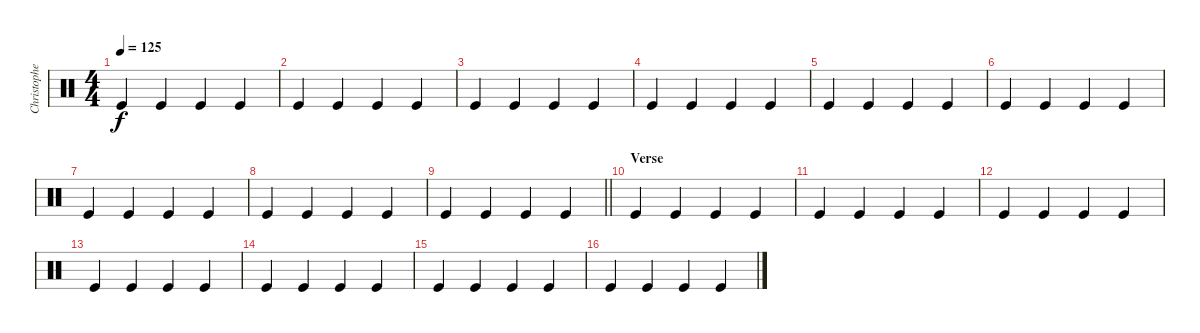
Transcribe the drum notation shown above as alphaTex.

\track ("Christopher - Drums" "Christophe") {instrument percussion}
\staff {score}
\articulation defaults
\ts (4 4)
\tempo 125
\clef neutral
\ks c "Kick (hit)".4{dy f} "Kick (hit)".4 "Kick (hit)".4 "Kick (hit)".4
|
"Kick (hit)".4 "Kick (hit)".4 "Kick (hit)".4 "Kick (hit)".4 |
"Kick (hit)".4 "Kick (hit)".4 "Kick (hit)".4 "Kick (hit)".4 |
"Kick (hit)".4 "Kick (hit)".4 "Kick (hit)".4 "Kick (hit)".4 |
"Kick (hit)".4 "Kick (hit)".4 "Kick (hit)".4 "Kick (hit)".4 |
"Kick (hit)".4 "Kick (hit)".4 "Kick (hit)".4 "Kick (hit)".4 |
"Kick (hit)".4 "Kick (hit)".4 "Kick (hit)".4 "Kick (hit)".4 |
"Kick (hit)".4 "Kick (hit)".4 "Kick (hit)".4 "Kick (hit)".4 |
\barLineRight lightlight "Kick (hit)".4 "Kick (hit)".4 "Kick (hit)".4 "Kick (hit)".4
|
\section ("" "Verse")
"Kick (hit)".4 "Kick (hit)".4 "Kick (hit)".4 "Kick (hit)".4 |
"Kick (hit)".4 "Kick (hit)".4 "Kick (hit)".4 "Kick (hit)".4 |
"Kick (hit)".4 "Kick (hit)".4 "Kick (hit)".4 "Kick (hit)".4 |
"Kick (hit)".4 "Kick (hit)".4 "Kick (hit)".4 "Kick (hit)".4 |
"Kick (hit)".4 "Kick (hit)".4 "Kick (hit)".4 "Kick (hit)".4 |
"Kick (hit)".4 "Kick (hit)".4 "Kick (hit)".4 "Kick (hit)".4 |
"Kick (hit)".4 "Kick (hit)".4 "Kick (hit)".4 "Kick (hit)".4
